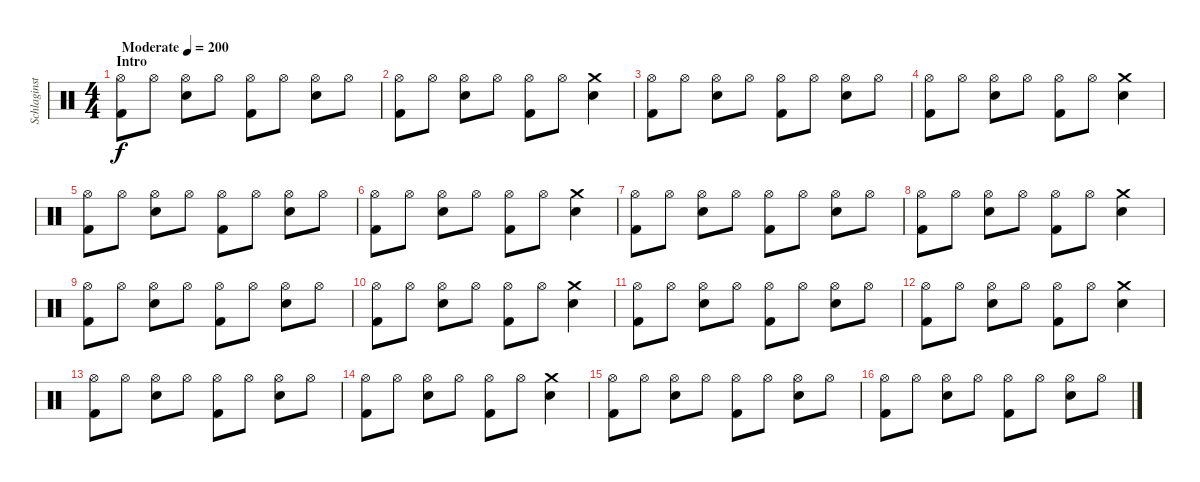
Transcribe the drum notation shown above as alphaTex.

\track ("Schlaginstrumente - Auswahl" "Schlaginst") {instrument percussion}
\staff {score}
\articulation defaults
\ts (4 4)
\section ("" "Intro")
\tempo (200 "Moderate")
\clef neutral
\ks c
("Hi-Hat (open)" "Kick (hit) 2").8{dy f} "Hi-Hat (open)".8 ("Hi-Hat (open)" "Electric Snare (hit)").8 "Hi-Hat (open)".8 ("Hi-Hat (open)" "Kick (hit) 2").8 "Hi-Hat (open)".8 ("Hi-Hat (open)" "Electric Snare (hit)").8 "Hi-Hat (open)".8 |
("Hi-Hat (open)" "Kick (hit) 2").8 "Hi-Hat (open)".8 ("Hi-Hat (open)" "Electric Snare (hit)").8 "Hi-Hat (open)".8 ("Hi-Hat (open)" "Kick (hit) 2").8 "Hi-Hat (open)".8 ("Crash medium (hit)" "Electric Snare (hit)").4 |
("Hi-Hat (open)" "Kick (hit) 2").8 "Hi-Hat (open)".8 ("Hi-Hat (open)" "Electric Snare (hit)").8 "Hi-Hat (open)".8 ("Hi-Hat (open)" "Kick (hit) 2").8 "Hi-Hat (open)".8 ("Hi-Hat (open)" "Electric Snare (hit)").8 "Hi-Hat (open)".8 |
("Hi-Hat (open)" "Kick (hit) 2").8 "Hi-Hat (open)".8 ("Hi-Hat (open)" "Electric Snare (hit)").8 "Hi-Hat (open)".8 ("Hi-Hat (open)" "Kick (hit) 2").8 "Hi-Hat (open)".8 ("Crash medium (hit)" "Electric Snare (hit)").4 |
("Hi-Hat (open)" "Kick (hit) 2").8 "Hi-Hat (open)".8 ("Hi-Hat (open)" "Electric Snare (hit)").8 "Hi-Hat (open)".8 ("Hi-Hat (open)" "Kick (hit) 2").8 "Hi-Hat (open)".8 ("Hi-Hat (open)" "Electric Snare (hit)").8 "Hi-Hat (open)".8 |
("Hi-Hat (open)" "Kick (hit) 2").8 "Hi-Hat (open)".8 ("Hi-Hat (open)" "Electric Snare (hit)").8 "Hi-Hat (open)".8 ("Hi-Hat (open)" "Kick (hit) 2").8 "Hi-Hat (open)".8 ("Crash medium (hit)" "Electric Snare (hit)").4 |
("Hi-Hat (open)" "Kick (hit) 2").8 "Hi-Hat (open)".8 ("Hi-Hat (open)" "Electric Snare (hit)").8 "Hi-Hat (open)".8 ("Hi-Hat (open)" "Kick (hit) 2").8 "Hi-Hat (open)".8 ("Hi-Hat (open)" "Electric Snare (hit)").8 "Hi-Hat (open)".8 |
("Hi-Hat (open)" "Kick (hit) 2").8 "Hi-Hat (open)".8 ("Hi-Hat (open)" "Electric Snare (hit)").8 "Hi-Hat (open)".8 ("Hi-Hat (open)" "Kick (hit) 2").8 "Hi-Hat (open)".8 ("Crash medium (hit)" "Electric Snare (hit)").4 |
("Hi-Hat (open)" "Kick (hit) 2").8 "Hi-Hat (open)".8 ("Hi-Hat (open)" "Electric Snare (hit)").8 "Hi-Hat (open)".8 ("Hi-Hat (open)" "Kick (hit) 2").8 "Hi-Hat (open)".8 ("Hi-Hat (open)" "Electric Snare (hit)").8 "Hi-Hat (open)".8 |
("Hi-Hat (open)" "Kick (hit) 2").8 "Hi-Hat (open)".8 ("Hi-Hat (open)" "Electric Snare (hit)").8 "Hi-Hat (open)".8 ("Hi-Hat (open)" "Kick (hit) 2").8 "Hi-Hat (open)".8 ("Crash medium (hit)" "Electric Snare (hit)").4 |
("Hi-Hat (open)" "Kick (hit) 2").8 "Hi-Hat (open)".8 ("Hi-Hat (open)" "Electric Snare (hit)").8 "Hi-Hat (open)".8 ("Hi-Hat (open)" "Kick (hit) 2").8 "Hi-Hat (open)".8 ("Hi-Hat (open)" "Electric Snare (hit)").8 "Hi-Hat (open)".8 |
("Hi-Hat (open)" "Kick (hit) 2").8 "Hi-Hat (open)".8 ("Hi-Hat (open)" "Electric Snare (hit)").8 "Hi-Hat (open)".8 ("Hi-Hat (open)" "Kick (hit) 2").8 "Hi-Hat (open)".8 ("Crash medium (hit)" "Electric Snare (hit)").4 |
("Hi-Hat (open)" "Kick (hit) 2").8 "Hi-Hat (open)".8 ("Hi-Hat (open)" "Electric Snare (hit)").8 "Hi-Hat (open)".8 ("Hi-Hat (open)" "Kick (hit) 2").8 "Hi-Hat (open)".8 ("Hi-Hat (open)" "Electric Snare (hit)").8 "Hi-Hat (open)".8 |
("Hi-Hat (open)" "Kick (hit) 2").8 "Hi-Hat (open)".8 ("Hi-Hat (open)" "Electric Snare (hit)").8 "Hi-Hat (open)".8 ("Hi-Hat (open)" "Kick (hit) 2").8 "Hi-Hat (open)".8 ("Crash medium (hit)" "Electric Snare (hit)").4 |
("Hi-Hat (open)" "Kick (hit) 2").8 "Hi-Hat (open)".8 ("Hi-Hat (open)" "Electric Snare (hit)").8 "Hi-Hat (open)".8 ("Hi-Hat (open)" "Kick (hit) 2").8 "Hi-Hat (open)".8 ("Hi-Hat (open)" "Electric Snare (hit)").8 "Hi-Hat (open)".8 |
("Hi-Hat (open)" "Kick (hit) 2").8 "Hi-Hat (open)".8 ("Hi-Hat (open)" "Electric Snare (hit)").8 "Hi-Hat (open)".8 ("Hi-Hat (open)" "Kick (hit) 2").8 "Hi-Hat (open)".8 ("Hi-Hat (open)" "Electric Snare (hit)").8 "Hi-Hat (open)".8
